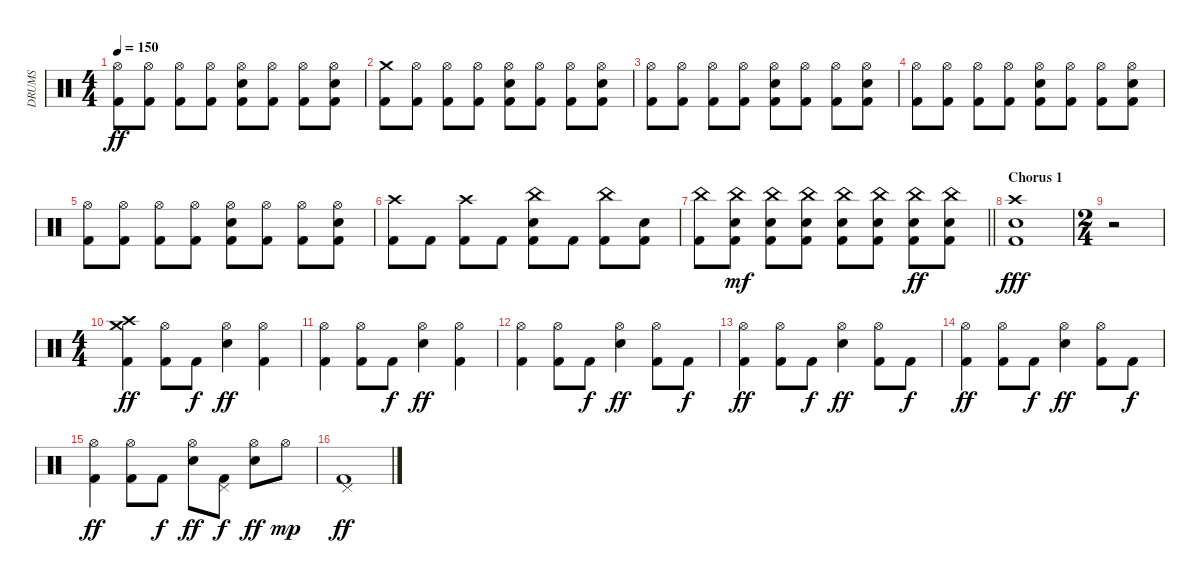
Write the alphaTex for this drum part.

\track ("DRUMS" "DRUMS") {instrument percussion}
\staff {score}
\articulation defaults
\ts (4 4)
\tempo 150
\clef neutral
\ks c
("Hi-Hat (open)" "Kick (hit) 2").8{dy ff} ("Hi-Hat (open)" "Kick (hit) 2").8 ("Hi-Hat (open)" "Kick (hit) 2").8 ("Hi-Hat (open)" "Kick (hit) 2").8 ("Hi-Hat (open)" "Snare (hit) 2" "Kick (hit) 2").8 ("Hi-Hat (open)" "Kick (hit) 2").8 ("Hi-Hat (open)" "Kick (hit) 2").8 ("Hi-Hat (open)" "Snare (hit) 2" "Kick (hit) 2").8 |
("Crash medium (hit)" "Kick (hit) 2").8 ("Hi-Hat (open)" "Kick (hit) 2").8 ("Hi-Hat (open)" "Kick (hit) 2").8 ("Hi-Hat (open)" "Kick (hit) 2").8 ("Hi-Hat (open)" "Snare (hit) 2" "Kick (hit) 2").8 ("Hi-Hat (open)" "Kick (hit) 2").8 ("Hi-Hat (open)" "Kick (hit) 2").8 ("Hi-Hat (open)" "Snare (hit) 2" "Kick (hit) 2").8 |
("Hi-Hat (open)" "Kick (hit) 2").8 ("Hi-Hat (open)" "Kick (hit) 2").8 ("Hi-Hat (open)" "Kick (hit) 2").8 ("Hi-Hat (open)" "Kick (hit) 2").8 ("Hi-Hat (open)" "Snare (hit) 2" "Kick (hit) 2").8 ("Hi-Hat (open)" "Kick (hit) 2").8 ("Hi-Hat (open)" "Kick (hit) 2").8 ("Hi-Hat (open)" "Snare (hit) 2" "Kick (hit) 2").8 |
("Hi-Hat (open)" "Kick (hit) 2").8 ("Hi-Hat (open)" "Kick (hit) 2").8 ("Hi-Hat (open)" "Kick (hit) 2").8 ("Hi-Hat (open)" "Kick (hit) 2").8 ("Hi-Hat (open)" "Snare (hit) 2" "Kick (hit) 2").8 ("Hi-Hat (open)" "Kick (hit) 2").8 ("Hi-Hat (open)" "Kick (hit) 2").8 ("Hi-Hat (open)" "Snare (hit) 2" "Kick (hit) 2").8 |
("Hi-Hat (open)" "Kick (hit) 2").8 ("Hi-Hat (open)" "Kick (hit) 2").8 ("Hi-Hat (open)" "Kick (hit) 2").8 ("Hi-Hat (open)" "Kick (hit) 2").8 ("Hi-Hat (open)" "Snare (hit) 2" "Kick (hit) 2").8 ("Hi-Hat (open)" "Kick (hit) 2").8 ("Hi-Hat (open)" "Kick (hit) 2").8 ("Hi-Hat (open)" "Snare (hit) 2" "Kick (hit) 2").8 |
("Crash high (hit)" "Kick (hit) 2").8 "Kick (hit) 2".8 ("Crash high (hit)" "Kick (hit) 2").8 "Kick (hit) 2".8 ("China (hit)" "Snare (hit) 2" "Kick (hit) 2").8 "Kick (hit) 2".8 ("China (hit)" "Kick (hit) 2").8 ("Snare (hit) 2" "Kick (hit) 2").8 |
\barLineRight lightlight
("China (hit)" "Kick (hit) 2").8 ("China (hit)" "Snare (hit) 2" "Kick (hit) 2").8{dy mf} ("China (hit)" "Snare (hit) 2" "Kick (hit) 2").8 ("China (hit)" "Snare (hit) 2" "Kick (hit) 2").8 ("China (hit)" "Snare (hit) 2" "Kick (hit) 2").8 ("China (hit)" "Snare (hit) 2" "Kick (hit) 2").8 ("China (hit)" "Snare (hit) 2" "Kick (hit) 2").8{dy ff} ("China (hit)" "Snare (hit) 2" "Kick (hit) 2").8 |
\section ("" "Chorus 1")
("Crash high (hit)" "Snare (hit) 2" "Kick (hit) 2").1{dy fff} |
\ts (2 4)
r.2 |
\ts (4 4)
("Crash medium (hit)" "Crash high (hit)" "Kick (hit) 2").4{dy ff} ("Hi-Hat (open)" "Kick (hit) 2").8 "Kick (hit) 2".8{dy f} ("Hi-Hat (open)" "Snare (hit) 2").4{dy ff} ("Hi-Hat (open)" "Kick (hit) 2").4 |
("Hi-Hat (open)" "Kick (hit) 2").4 ("Hi-Hat (open)" "Kick (hit) 2").8 "Kick (hit) 2".8{dy f} ("Hi-Hat (open)" "Snare (hit) 2").4{dy ff} ("Hi-Hat (open)" "Kick (hit) 2").4 |
("Hi-Hat (open)" "Kick (hit) 2").4 ("Hi-Hat (open)" "Kick (hit) 2").8 "Kick (hit) 2".8{dy f} ("Hi-Hat (open)" "Snare (hit) 2").4{dy ff} ("Hi-Hat (open)" "Kick (hit) 2").8 "Kick (hit) 2".8{dy f} |
("Hi-Hat (open)" "Kick (hit) 2").4{dy ff} ("Hi-Hat (open)" "Kick (hit) 2").8 "Kick (hit) 2".8{dy f} ("Hi-Hat (open)" "Snare (hit) 2").4{dy ff} ("Hi-Hat (open)" "Kick (hit) 2").8 "Kick (hit) 2".8{dy f} |
("Hi-Hat (open)" "Kick (hit) 2").4{dy ff} ("Hi-Hat (open)" "Kick (hit) 2").8 "Kick (hit) 2".8{dy f} ("Hi-Hat (open)" "Snare (hit) 2").4{dy ff} ("Hi-Hat (open)" "Kick (hit) 2").8 "Kick (hit) 2".8{dy f} |
("Hi-Hat (open)" "Kick (hit) 2").4{dy ff} ("Hi-Hat (open)" "Kick (hit) 2").8 "Kick (hit) 2".8{dy f} ("Hi-Hat (open)" "Snare (hit) 2").8{dy ff} ("Pedal Hi-Hat (hit)" "Kick (hit) 2").8{dy f} ("Hi-Hat (open)" "Snare (hit) 2").8{dy ff} "Hi-Hat (open)".8{dy mp} |
("Pedal Hi-Hat (hit)" "Kick (hit) 2").1{dy ff}
